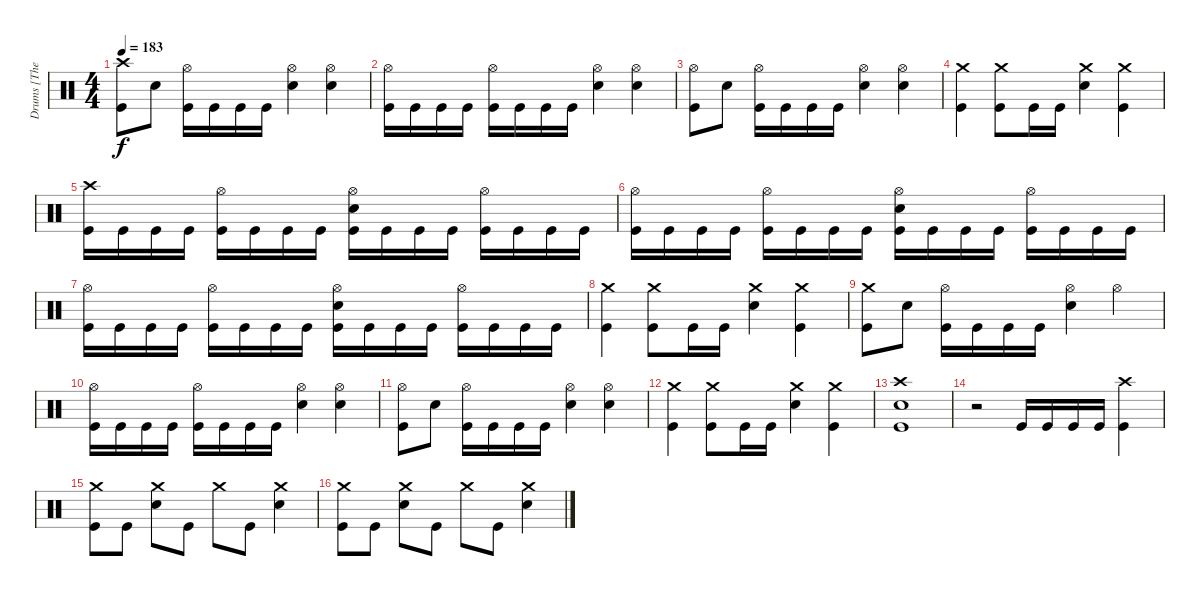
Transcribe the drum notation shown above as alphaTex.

\track ("Drums [The Rev]" "Drums [The") {instrument percussion}
\staff {score}
\articulation defaults
\ts (4 4)
\tempo 183
\clef neutral
\ks c
("Crash high (hit)" "Kick (hit)").8{dy f} "Snare (hit) 2".8 ("Hi-Hat (open)" "Kick (hit)").16 "Kick (hit)".16 "Kick (hit)".16 "Kick (hit)".16 ("Hi-Hat (open)" "Snare (hit) 2").4 ("Hi-Hat (open)" "Snare (hit) 2").4 |
("Hi-Hat (open)" "Kick (hit)").16 "Kick (hit)".16 "Kick (hit)".16 "Kick (hit)".16 ("Hi-Hat (open)" "Kick (hit)").16 "Kick (hit)".16 "Kick (hit)".16 "Kick (hit)".16 ("Hi-Hat (open)" "Snare (hit) 2").4 ("Hi-Hat (open)" "Snare (hit) 2").4 |
("Hi-Hat (open)" "Kick (hit)").8 "Snare (hit) 2".8 ("Hi-Hat (open)" "Kick (hit)").16 "Kick (hit)".16 "Kick (hit)".16 "Kick (hit)".16 ("Hi-Hat (open)" "Snare (hit) 2").4 ("Hi-Hat (open)" "Snare (hit) 2").4 |
("Crash medium (hit)" "Kick (hit)").4 ("Crash medium (hit)" "Kick (hit)").8 "Kick (hit)".16 "Kick (hit)".16 ("Crash medium (hit)" "Snare (hit) 2").4 ("Crash medium (hit)" "Kick (hit)").4 |
("Crash high (hit)" "Kick (hit)").16 "Kick (hit)".16 "Kick (hit)".16 "Kick (hit)".16 ("Hi-Hat (open)" "Kick (hit)").16 "Kick (hit)".16 "Kick (hit)".16 "Kick (hit)".16 ("Hi-Hat (open)" "Snare (hit) 2" "Kick (hit)").16 "Kick (hit)".16 "Kick (hit)".16 "Kick (hit)".16 ("Hi-Hat (open)" "Kick (hit)").16 "Kick (hit)".16 "Kick (hit)".16 "Kick (hit)".16 |
("Hi-Hat (open)" "Kick (hit)").16 "Kick (hit)".16 "Kick (hit)".16 "Kick (hit)".16 ("Hi-Hat (open)" "Kick (hit)").16 "Kick (hit)".16 "Kick (hit)".16 "Kick (hit)".16 ("Hi-Hat (open)" "Snare (hit) 2" "Kick (hit)").16 "Kick (hit)".16 "Kick (hit)".16 "Kick (hit)".16 ("Hi-Hat (open)" "Kick (hit)").16 "Kick (hit)".16 "Kick (hit)".16 "Kick (hit)".16 |
("Hi-Hat (open)" "Kick (hit)").16 "Kick (hit)".16 "Kick (hit)".16 "Kick (hit)".16 ("Hi-Hat (open)" "Kick (hit)").16 "Kick (hit)".16 "Kick (hit)".16 "Kick (hit)".16 ("Hi-Hat (open)" "Snare (hit) 2" "Kick (hit)").16 "Kick (hit)".16 "Kick (hit)".16 "Kick (hit)".16 ("Hi-Hat (open)" "Kick (hit)").16 "Kick (hit)".16 "Kick (hit)".16 "Kick (hit)".16 |
("Crash medium (hit)" "Kick (hit)").4 ("Crash medium (hit)" "Kick (hit)").8 "Kick (hit)".16 "Kick (hit)".16 ("Crash medium (hit)" "Snare (hit) 2").4 ("Crash medium (hit)" "Kick (hit)").4 |
("Crash medium (hit)" "Kick (hit)").8 "Snare (hit) 2".8 ("Hi-Hat (open)" "Kick (hit)").16 "Kick (hit)".16 "Kick (hit)".16 "Kick (hit)".16 ("Hi-Hat (open)" "Snare (hit) 2").4 "Hi-Hat (open)".4 |
("Hi-Hat (open)" "Kick (hit)").16 "Kick (hit)".16 "Kick (hit)".16 "Kick (hit)".16 ("Hi-Hat (open)" "Kick (hit)").16 "Kick (hit)".16 "Kick (hit)".16 "Kick (hit)".16 ("Hi-Hat (open)" "Snare (hit) 2").4 ("Hi-Hat (open)" "Snare (hit) 2").4 |
("Hi-Hat (open)" "Kick (hit)").8 "Snare (hit) 2".8 ("Hi-Hat (open)" "Kick (hit)").16 "Kick (hit)".16 "Kick (hit)".16 "Kick (hit)".16 ("Hi-Hat (open)" "Snare (hit) 2").4 ("Hi-Hat (open)" "Snare (hit) 2").4 |
("Crash medium (hit)" "Kick (hit)").4 ("Crash medium (hit)" "Kick (hit)").8 "Kick (hit)".16 "Kick (hit)".16 ("Crash medium (hit)" "Snare (hit) 2").4 ("Crash medium (hit)" "Kick (hit)").4 |
("Crash high (hit)" "Snare (hit) 2" "Kick (hit)").1 |
r.2 "Kick (hit)".16 "Kick (hit)".16 "Kick (hit)".16 "Kick (hit)".16 ("Crash high (hit)" "Kick (hit)").4 |
("Crash medium (hit)" "Kick (hit)").8 "Kick (hit)".8 ("Crash medium (hit)" "Snare (hit) 2").8 "Kick (hit)".8 "Crash medium (hit)".8 "Kick (hit)".8 ("Crash medium (hit)" "Snare (hit) 2").4 |
("Crash medium (hit)" "Kick (hit)").8 "Kick (hit)".8 ("Crash medium (hit)" "Snare (hit) 2").8 "Kick (hit)".8 "Crash medium (hit)".8 "Kick (hit)".8 ("Crash medium (hit)" "Snare (hit) 2").4
